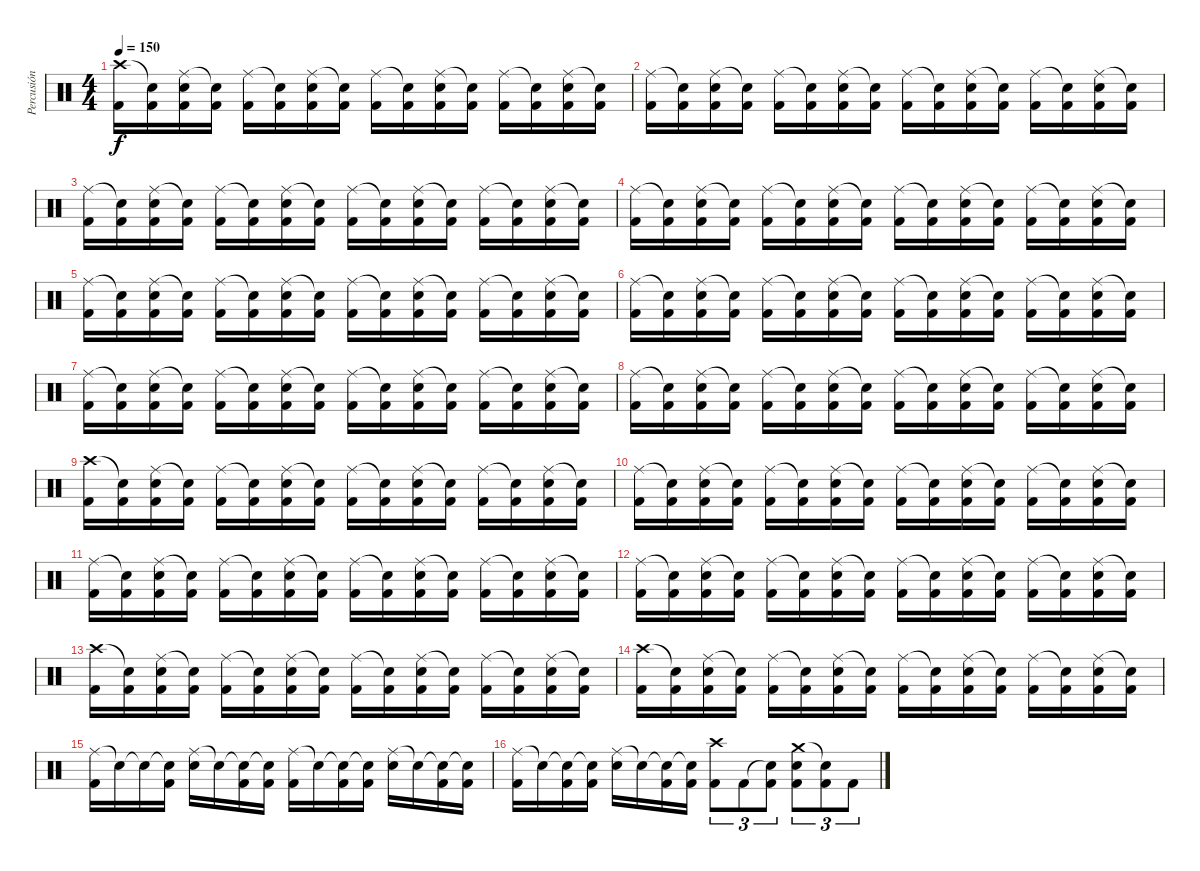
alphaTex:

\track ("Percusión" "Percusión") {instrument percussion}
\staff {score}
\articulation defaults
\ts (4 4)
\tempo 150
\clef neutral
\ks c
("Crash high (hit)" "Kick (hit) 2").16{dy f} ("Snare (hit)"{t} "Kick (hit) 2").16 ("Ride (middle)" "Electric Snare (hit)" "Kick (hit) 2").16 ("Snare (hit)"{t} "Kick (hit) 2").16 ("Ride (middle)" "Kick (hit) 2").16 ("Snare (hit)"{t} "Kick (hit) 2").16 ("Ride (middle)" "Electric Snare (hit)" "Kick (hit) 2").16 ("Snare (hit)"{t} "Kick (hit) 2").16 ("Ride (middle)" "Kick (hit) 2").16 ("Snare (hit)"{t} "Kick (hit) 2").16 ("Ride (middle)" "Electric Snare (hit)" "Kick (hit) 2").16 ("Snare (hit)"{t} "Kick (hit) 2").16 ("Ride (middle)" "Kick (hit) 2").16 ("Snare (hit)"{t} "Kick (hit) 2").16 ("Ride (middle)" "Electric Snare (hit)" "Kick (hit) 2").16 ("Snare (hit)"{t} "Kick (hit) 2").16 |
("Ride (middle)" "Kick (hit) 2").16 ("Snare (hit)"{t} "Kick (hit) 2").16 ("Ride (middle)" "Electric Snare (hit)" "Kick (hit) 2").16 ("Snare (hit)"{t} "Kick (hit) 2").16 ("Ride (middle)" "Kick (hit) 2").16 ("Snare (hit)"{t} "Kick (hit) 2").16 ("Ride (middle)" "Electric Snare (hit)" "Kick (hit) 2").16 ("Snare (hit)"{t} "Kick (hit) 2").16 ("Ride (middle)" "Kick (hit) 2").16 ("Snare (hit)"{t} "Kick (hit) 2").16 ("Ride (middle)" "Electric Snare (hit)" "Kick (hit) 2").16 ("Snare (hit)"{t} "Kick (hit) 2").16 ("Ride (middle)" "Kick (hit) 2").16 ("Snare (hit)"{t} "Kick (hit) 2").16 ("Ride (middle)" "Electric Snare (hit)" "Kick (hit) 2").16 ("Snare (hit)"{t} "Kick (hit) 2").16 |
("Ride (middle)" "Kick (hit) 2").16 ("Snare (hit)"{t} "Kick (hit) 2").16 ("Ride (middle)" "Electric Snare (hit)" "Kick (hit) 2").16 ("Snare (hit)"{t} "Kick (hit) 2").16 ("Ride (middle)" "Kick (hit) 2").16 ("Snare (hit)"{t} "Kick (hit) 2").16 ("Ride (middle)" "Electric Snare (hit)" "Kick (hit) 2").16 ("Snare (hit)"{t} "Kick (hit) 2").16 ("Ride (middle)" "Kick (hit) 2").16 ("Snare (hit)"{t} "Kick (hit) 2").16 ("Ride (middle)" "Electric Snare (hit)" "Kick (hit) 2").16 ("Snare (hit)"{t} "Kick (hit) 2").16 ("Ride (middle)" "Kick (hit) 2").16 ("Snare (hit)"{t} "Kick (hit) 2").16 ("Ride (middle)" "Electric Snare (hit)" "Kick (hit) 2").16 ("Snare (hit)"{t} "Kick (hit) 2").16 |
("Ride (middle)" "Kick (hit) 2").16 ("Snare (hit)"{t} "Kick (hit) 2").16 ("Ride (middle)" "Electric Snare (hit)" "Kick (hit) 2").16 ("Snare (hit)"{t} "Kick (hit) 2").16 ("Ride (middle)" "Kick (hit) 2").16 ("Snare (hit)"{t} "Kick (hit) 2").16 ("Ride (middle)" "Electric Snare (hit)" "Kick (hit) 2").16 ("Snare (hit)"{t} "Kick (hit) 2").16 ("Ride (middle)" "Kick (hit) 2").16 ("Snare (hit)"{t} "Kick (hit) 2").16 ("Ride (middle)" "Electric Snare (hit)" "Kick (hit) 2").16 ("Snare (hit)"{t} "Kick (hit) 2").16 ("Ride (middle)" "Kick (hit) 2").16 ("Snare (hit)"{t} "Kick (hit) 2").16 ("Ride (middle)" "Electric Snare (hit)" "Kick (hit) 2").16 ("Snare (hit)"{t} "Kick (hit) 2").16 |
("Ride (middle)" "Kick (hit) 2").16 ("Snare (hit)"{t} "Kick (hit) 2").16 ("Ride (middle)" "Electric Snare (hit)" "Kick (hit) 2").16 ("Snare (hit)"{t} "Kick (hit) 2").16 ("Ride (middle)" "Kick (hit) 2").16 ("Snare (hit)"{t} "Kick (hit) 2").16 ("Ride (middle)" "Electric Snare (hit)" "Kick (hit) 2").16 ("Snare (hit)"{t} "Kick (hit) 2").16 ("Ride (middle)" "Kick (hit) 2").16 ("Snare (hit)"{t} "Kick (hit) 2").16 ("Ride (middle)" "Electric Snare (hit)" "Kick (hit) 2").16 ("Snare (hit)"{t} "Kick (hit) 2").16 ("Ride (middle)" "Kick (hit) 2").16 ("Snare (hit)"{t} "Kick (hit) 2").16 ("Ride (middle)" "Electric Snare (hit)" "Kick (hit) 2").16 ("Snare (hit)"{t} "Kick (hit) 2").16 |
("Ride (middle)" "Kick (hit) 2").16 ("Snare (hit)"{t} "Kick (hit) 2").16 ("Ride (middle)" "Electric Snare (hit)" "Kick (hit) 2").16 ("Snare (hit)"{t} "Kick (hit) 2").16 ("Ride (middle)" "Kick (hit) 2").16 ("Snare (hit)"{t} "Kick (hit) 2").16 ("Ride (middle)" "Electric Snare (hit)" "Kick (hit) 2").16 ("Snare (hit)"{t} "Kick (hit) 2").16 ("Ride (middle)" "Kick (hit) 2").16 ("Snare (hit)"{t} "Kick (hit) 2").16 ("Ride (middle)" "Electric Snare (hit)" "Kick (hit) 2").16 ("Snare (hit)"{t} "Kick (hit) 2").16 ("Ride (middle)" "Kick (hit) 2").16 ("Snare (hit)"{t} "Kick (hit) 2").16 ("Ride (middle)" "Electric Snare (hit)" "Kick (hit) 2").16 ("Snare (hit)"{t} "Kick (hit) 2").16 |
("Ride (middle)" "Kick (hit) 2").16 ("Snare (hit)"{t} "Kick (hit) 2").16 ("Ride (middle)" "Electric Snare (hit)" "Kick (hit) 2").16 ("Snare (hit)"{t} "Kick (hit) 2").16 ("Ride (middle)" "Kick (hit) 2").16 ("Snare (hit)"{t} "Kick (hit) 2").16 ("Ride (middle)" "Electric Snare (hit)" "Kick (hit) 2").16 ("Snare (hit)"{t} "Kick (hit) 2").16 ("Ride (middle)" "Kick (hit) 2").16 ("Snare (hit)"{t} "Kick (hit) 2").16 ("Ride (middle)" "Electric Snare (hit)" "Kick (hit) 2").16 ("Snare (hit)"{t} "Kick (hit) 2").16 ("Ride (middle)" "Kick (hit) 2").16 ("Snare (hit)"{t} "Kick (hit) 2").16 ("Ride (middle)" "Electric Snare (hit)" "Kick (hit) 2").16 ("Snare (hit)"{t} "Kick (hit) 2").16 |
("Ride (middle)" "Kick (hit) 2").16 ("Snare (hit)"{t} "Kick (hit) 2").16 ("Ride (middle)" "Electric Snare (hit)" "Kick (hit) 2").16 ("Snare (hit)"{t} "Kick (hit) 2").16 ("Ride (middle)" "Kick (hit) 2").16 ("Snare (hit)"{t} "Kick (hit) 2").16 ("Ride (middle)" "Electric Snare (hit)" "Kick (hit) 2").16 ("Snare (hit)"{t} "Kick (hit) 2").16 ("Ride (middle)" "Kick (hit) 2").16 ("Snare (hit)"{t} "Kick (hit) 2").16 ("Ride (middle)" "Electric Snare (hit)" "Kick (hit) 2").16 ("Snare (hit)"{t} "Kick (hit) 2").16 ("Ride (middle)" "Kick (hit) 2").16 ("Snare (hit)"{t} "Kick (hit) 2").16 ("Ride (middle)" "Electric Snare (hit)" "Kick (hit) 2").16 ("Snare (hit)"{t} "Kick (hit) 2").16 |
("Crash high (hit)" "Kick (hit) 2").16 ("Snare (hit)"{t} "Kick (hit) 2").16 ("Ride (middle)" "Electric Snare (hit)" "Kick (hit) 2").16 ("Snare (hit)"{t} "Kick (hit) 2").16 ("Ride (middle)" "Kick (hit) 2").16 ("Snare (hit)"{t} "Kick (hit) 2").16 ("Ride (middle)" "Electric Snare (hit)" "Kick (hit) 2").16 ("Snare (hit)"{t} "Kick (hit) 2").16 ("Ride (middle)" "Kick (hit) 2").16 ("Snare (hit)"{t} "Kick (hit) 2").16 ("Ride (middle)" "Electric Snare (hit)" "Kick (hit) 2").16 ("Snare (hit)"{t} "Kick (hit) 2").16 ("Ride (middle)" "Kick (hit) 2").16 ("Snare (hit)"{t} "Kick (hit) 2").16 ("Ride (middle)" "Electric Snare (hit)" "Kick (hit) 2").16 ("Snare (hit)"{t} "Kick (hit) 2").16 |
("Ride (middle)" "Kick (hit) 2").16 ("Snare (hit)"{t} "Kick (hit) 2").16 ("Ride (middle)" "Electric Snare (hit)" "Kick (hit) 2").16 ("Snare (hit)"{t} "Kick (hit) 2").16 ("Ride (middle)" "Kick (hit) 2").16 ("Snare (hit)"{t} "Kick (hit) 2").16 ("Ride (middle)" "Electric Snare (hit)" "Kick (hit) 2").16 ("Snare (hit)"{t} "Kick (hit) 2").16 ("Ride (middle)" "Kick (hit) 2").16 ("Snare (hit)"{t} "Kick (hit) 2").16 ("Ride (middle)" "Electric Snare (hit)" "Kick (hit) 2").16 ("Snare (hit)"{t} "Kick (hit) 2").16 ("Ride (middle)" "Kick (hit) 2").16 ("Snare (hit)"{t} "Kick (hit) 2").16 ("Ride (middle)" "Electric Snare (hit)" "Kick (hit) 2").16 ("Snare (hit)"{t} "Kick (hit) 2").16 |
("Ride (middle)" "Kick (hit) 2").16 ("Snare (hit)"{t} "Kick (hit) 2").16 ("Ride (middle)" "Electric Snare (hit)" "Kick (hit) 2").16 ("Snare (hit)"{t} "Kick (hit) 2").16 ("Ride (middle)" "Kick (hit) 2").16 ("Snare (hit)"{t} "Kick (hit) 2").16 ("Ride (middle)" "Electric Snare (hit)" "Kick (hit) 2").16 ("Snare (hit)"{t} "Kick (hit) 2").16 ("Ride (middle)" "Kick (hit) 2").16 ("Snare (hit)"{t} "Kick (hit) 2").16 ("Ride (middle)" "Electric Snare (hit)" "Kick (hit) 2").16 ("Snare (hit)"{t} "Kick (hit) 2").16 ("Ride (middle)" "Kick (hit) 2").16 ("Snare (hit)"{t} "Kick (hit) 2").16 ("Ride (middle)" "Electric Snare (hit)" "Kick (hit) 2").16 ("Snare (hit)"{t} "Kick (hit) 2").16 |
("Ride (middle)" "Kick (hit) 2").16 ("Snare (hit)"{t} "Kick (hit) 2").16 ("Ride (middle)" "Electric Snare (hit)" "Kick (hit) 2").16 ("Snare (hit)"{t} "Kick (hit) 2").16 ("Ride (middle)" "Kick (hit) 2").16 ("Snare (hit)"{t} "Kick (hit) 2").16 ("Ride (middle)" "Electric Snare (hit)" "Kick (hit) 2").16 ("Snare (hit)"{t} "Kick (hit) 2").16 ("Ride (middle)" "Kick (hit) 2").16 ("Snare (hit)"{t} "Kick (hit) 2").16 ("Ride (middle)" "Electric Snare (hit)" "Kick (hit) 2").16 ("Snare (hit)"{t} "Kick (hit) 2").16 ("Ride (middle)" "Kick (hit) 2").16 ("Snare (hit)"{t} "Kick (hit) 2").16 ("Ride (middle)" "Electric Snare (hit)" "Kick (hit) 2").16 ("Snare (hit)"{t} "Kick (hit) 2").16 |
("Crash high (hit)" "Kick (hit) 2").16 ("Snare (hit)"{t} "Kick (hit) 2").16 ("Ride (middle)" "Electric Snare (hit)" "Kick (hit) 2").16 ("Snare (hit)"{t} "Kick (hit) 2").16 ("Ride (middle)" "Kick (hit) 2").16 ("Snare (hit)"{t} "Kick (hit) 2").16 ("Ride (middle)" "Electric Snare (hit)" "Kick (hit) 2").16 ("Snare (hit)"{t} "Kick (hit) 2").16 ("Ride (middle)" "Kick (hit) 2").16 ("Snare (hit)"{t} "Kick (hit) 2").16 ("Ride (middle)" "Electric Snare (hit)" "Kick (hit) 2").16 ("Snare (hit)"{t} "Kick (hit) 2").16 ("Ride (middle)" "Kick (hit) 2").16 ("Snare (hit)"{t} "Kick (hit) 2").16 ("Ride (middle)" "Electric Snare (hit)" "Kick (hit) 2").16 ("Snare (hit)"{t} "Kick (hit) 2").16 |
("Crash high (hit)" "Kick (hit) 2").16 ("Snare (hit)"{t} "Kick (hit) 2").16 ("Ride (middle)" "Electric Snare (hit)" "Kick (hit) 2").16 ("Snare (hit)"{t} "Kick (hit) 2").16 ("Ride (middle)" "Kick (hit) 2").16 ("Snare (hit)"{t} "Kick (hit) 2").16 ("Ride (middle)" "Electric Snare (hit)" "Kick (hit) 2").16 ("Snare (hit)"{t} "Kick (hit) 2").16 ("Ride (middle)" "Kick (hit) 2").16 ("Snare (hit)"{t} "Kick (hit) 2").16 ("Ride (middle)" "Electric Snare (hit)" "Kick (hit) 2").16 ("Snare (hit)"{t} "Kick (hit) 2").16 ("Ride (middle)" "Kick (hit) 2").16 ("Snare (hit)"{t} "Kick (hit) 2").16 ("Ride (middle)" "Electric Snare (hit)" "Kick (hit) 2").16 ("Snare (hit)"{t} "Kick (hit) 2").16 |
("Ride (middle)" "Kick (hit) 2").16 "Snare (hit)"{t}.16 "Snare (hit)"{t}.16 ("Snare (hit)"{t} "Kick (hit) 2").16 ("Ride (middle)" "Electric Snare (hit)").16 "Snare (hit)"{t}.16 ("Snare (hit)"{t} "Kick (hit) 2").16 ("Snare (hit)"{t} "Kick (hit) 2").16 ("Ride (middle)" "Kick (hit) 2").16 "Snare (hit)"{t}.16 ("Snare (hit)"{t} "Kick (hit) 2").16 ("Snare (hit)"{t} "Kick (hit) 2").16 ("Ride (middle)" "Electric Snare (hit)").16 "Snare (hit)"{t}.16 ("Snare (hit)"{t} "Kick (hit) 2").16 ("Snare (hit)"{t} "Kick (hit) 2").16 |
("Ride (middle)" "Kick (hit) 2").16 "Snare (hit)"{t}.16 ("Snare (hit)"{t} "Kick (hit) 2").16 ("Snare (hit)"{t} "Kick (hit) 2").16 ("Ride (middle)" "Electric Snare (hit)").16 "Snare (hit)"{t}.16 ("Snare (hit)"{t} "Kick (hit) 2").16 ("Snare (hit)"{t} "Kick (hit) 2").16 ("Crash high (hit)" "Kick (hit) 2").8{tu (3 2)} "Kick (hit) 2".8{tu (3 2)} ("Snare (hit)"{t} "Kick (hit) 2").8{tu (3 2)} ("Crash medium (hit)" "Electric Snare (hit)" "Kick (hit) 2").8{tu (3 2)} ("Snare (hit)"{t} "Kick (hit) 2").8{tu (3 2)} "Kick (hit) 2".8{tu (3 2)}
